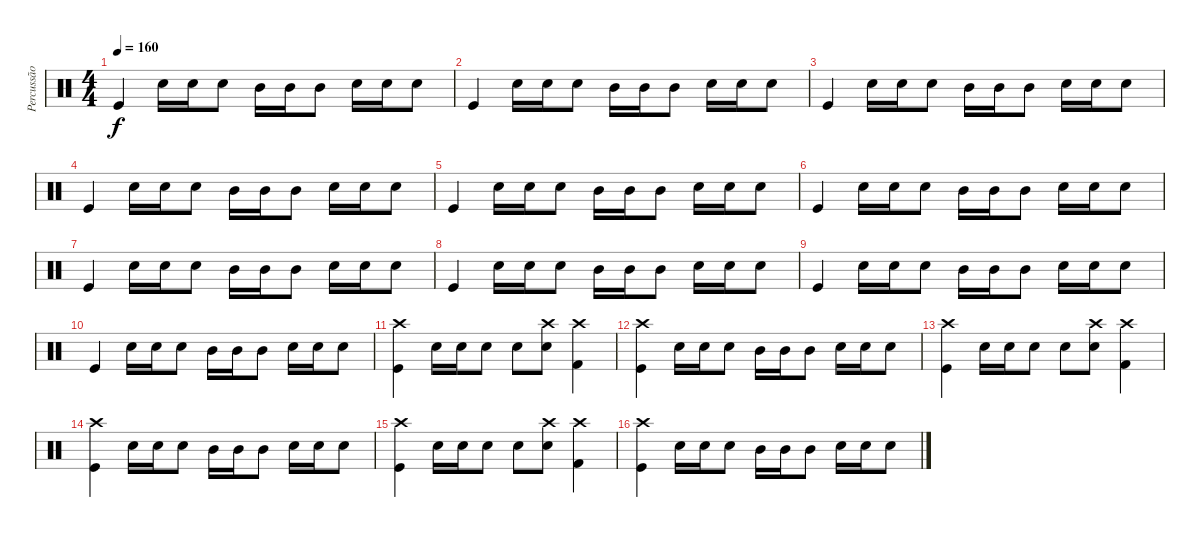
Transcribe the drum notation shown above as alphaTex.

\track ("Percussão" "Percussão") {instrument percussion}
\staff {score}
\articulation defaults
\ts (4 4)
\tempo 160
\clef neutral
\ks c "Kick (hit)".4{dy f} "Snare (hit) 2".16 "Snare (hit) 2".16 "Snare (hit) 2".8 "Mid Tom (hit)".16 "Mid Tom (hit)".16 "Mid Tom (hit)".8 "Snare (hit) 2".16 "Snare (hit) 2".16 "Snare (hit) 2".8
|
"Kick (hit)".4 "Snare (hit) 2".16 "Snare (hit) 2".16 "Snare (hit) 2".8 "Mid Tom (hit)".16 "Mid Tom (hit)".16 "Mid Tom (hit)".8 "Snare (hit) 2".16 "Snare (hit) 2".16 "Snare (hit) 2".8 |
"Kick (hit)".4 "Snare (hit) 2".16 "Snare (hit) 2".16 "Snare (hit) 2".8 "Mid Tom (hit)".16 "Mid Tom (hit)".16 "Mid Tom (hit)".8 "Snare (hit) 2".16 "Snare (hit) 2".16 "Snare (hit) 2".8 |
"Kick (hit)".4 "Snare (hit) 2".16 "Snare (hit) 2".16 "Snare (hit) 2".8 "Mid Tom (hit)".16 "Mid Tom (hit)".16 "Mid Tom (hit)".8 "Snare (hit) 2".16 "Snare (hit) 2".16 "Snare (hit) 2".8 |
"Kick (hit)".4 "Snare (hit) 2".16 "Snare (hit) 2".16 "Snare (hit) 2".8 "Mid Tom (hit)".16 "Mid Tom (hit)".16 "Mid Tom (hit)".8 "Snare (hit) 2".16 "Snare (hit) 2".16 "Snare (hit) 2".8 |
"Kick (hit)".4 "Snare (hit) 2".16 "Snare (hit) 2".16 "Snare (hit) 2".8 "Mid Tom (hit)".16 "Mid Tom (hit)".16 "Mid Tom (hit)".8 "Snare (hit) 2".16 "Snare (hit) 2".16 "Snare (hit) 2".8 |
"Kick (hit)".4 "Snare (hit) 2".16 "Snare (hit) 2".16 "Snare (hit) 2".8 "Mid Tom (hit)".16 "Mid Tom (hit)".16 "Mid Tom (hit)".8 "Snare (hit) 2".16 "Snare (hit) 2".16 "Snare (hit) 2".8 |
"Kick (hit)".4 "Snare (hit) 2".16 "Snare (hit) 2".16 "Snare (hit) 2".8 "Mid Tom (hit)".16 "Mid Tom (hit)".16 "Mid Tom (hit)".8 "Snare (hit) 2".16 "Snare (hit) 2".16 "Snare (hit) 2".8 |
"Kick (hit)".4 "Snare (hit) 2".16 "Snare (hit) 2".16 "Snare (hit) 2".8 "Mid Tom (hit)".16 "Mid Tom (hit)".16 "Mid Tom (hit)".8 "Snare (hit) 2".16 "Snare (hit) 2".16 "Snare (hit) 2".8 |
"Kick (hit)".4 "Snare (hit) 2".16 "Snare (hit) 2".16 "Snare (hit) 2".8 "Mid Tom (hit)".16 "Mid Tom (hit)".16 "Mid Tom (hit)".8 "Snare (hit) 2".16 "Snare (hit) 2".16 "Snare (hit) 2".8 |
("Crash high (hit)" "Kick (hit)").4 "Snare (hit) 2".16 "Snare (hit) 2".16 "Snare (hit) 2".8 "Snare (hit) 2".8 ("Crash high (hit)" "Snare (hit) 2").8 ("Crash high (hit)" "Kick (hit) 2").4 |
("Crash high (hit)" "Kick (hit)").4 "Snare (hit) 2".16 "Snare (hit) 2".16 "Snare (hit) 2".8 "Mid Tom (hit)".16 "Mid Tom (hit)".16 "Mid Tom (hit)".8 "Snare (hit) 2".16 "Snare (hit) 2".16 "Snare (hit) 2".8 |
("Crash high (hit)" "Kick (hit)").4 "Snare (hit) 2".16 "Snare (hit) 2".16 "Snare (hit) 2".8 "Snare (hit) 2".8 ("Crash high (hit)" "Snare (hit) 2").8 ("Crash high (hit)" "Kick (hit) 2").4 |
("Crash high (hit)" "Kick (hit)").4 "Snare (hit) 2".16 "Snare (hit) 2".16 "Snare (hit) 2".8 "Mid Tom (hit)".16 "Mid Tom (hit)".16 "Mid Tom (hit)".8 "Snare (hit) 2".16 "Snare (hit) 2".16 "Snare (hit) 2".8 |
("Crash high (hit)" "Kick (hit)").4 "Snare (hit) 2".16 "Snare (hit) 2".16 "Snare (hit) 2".8 "Snare (hit) 2".8 ("Crash high (hit)" "Snare (hit) 2").8 ("Crash high (hit)" "Kick (hit) 2").4 |
("Crash high (hit)" "Kick (hit)").4 "Snare (hit) 2".16 "Snare (hit) 2".16 "Snare (hit) 2".8 "Mid Tom (hit)".16 "Mid Tom (hit)".16 "Mid Tom (hit)".8 "Snare (hit) 2".16 "Snare (hit) 2".16 "Snare (hit) 2".8
